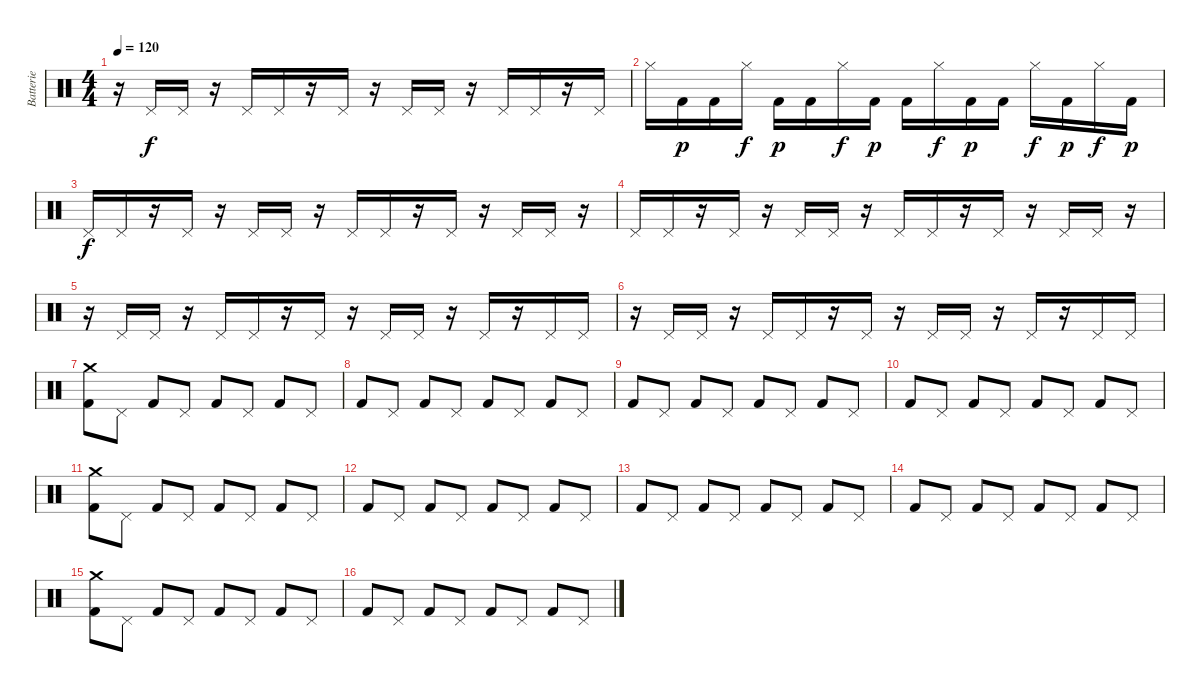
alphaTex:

\track ("Batterie" "Batterie") {instrument percussion}
\staff {score}
\articulation defaults
\ts (4 4)
\tempo 120
\clef neutral
\ks c
r.16{dy f} "Pedal Hi-Hat (hit)".16 "Pedal Hi-Hat (hit)".16 r.16 "Pedal Hi-Hat (hit)".16 "Pedal Hi-Hat (hit)".16 r.16 "Pedal Hi-Hat (hit)".16 r.16 "Pedal Hi-Hat (hit)".16 "Pedal Hi-Hat (hit)".16 r.16 "Pedal Hi-Hat (hit)".16 "Pedal Hi-Hat (hit)".16 r.16 "Pedal Hi-Hat (hit)".16 |
"Hi-Hat (closed)".16 "Kick (hit) 2".16{dy p} "Kick (hit) 2".16 "Hi-Hat (closed)".16{dy f} "Kick (hit) 2".16{dy p} "Kick (hit) 2".16 "Hi-Hat (closed)".16{dy f} "Kick (hit) 2".16{dy p} "Kick (hit) 2".16 "Hi-Hat (closed)".16{dy f} "Kick (hit) 2".16{dy p} "Kick (hit) 2".16 "Hi-Hat (closed)".16{dy f} "Kick (hit) 2".16{dy p} "Hi-Hat (closed)".16{dy f} "Kick (hit) 2".16{dy p} |
"Pedal Hi-Hat (hit)".16{dy f} "Pedal Hi-Hat (hit)".16 r.16 "Pedal Hi-Hat (hit)".16 r.16 "Pedal Hi-Hat (hit)".16 "Pedal Hi-Hat (hit)".16 r.16 "Pedal Hi-Hat (hit)".16 "Pedal Hi-Hat (hit)".16 r.16 "Pedal Hi-Hat (hit)".16 r.16 "Pedal Hi-Hat (hit)".16 "Pedal Hi-Hat (hit)".16 r.16 |
"Pedal Hi-Hat (hit)".16 "Pedal Hi-Hat (hit)".16 r.16 "Pedal Hi-Hat (hit)".16 r.16 "Pedal Hi-Hat (hit)".16 "Pedal Hi-Hat (hit)".16 r.16 "Pedal Hi-Hat (hit)".16 "Pedal Hi-Hat (hit)".16 r.16 "Pedal Hi-Hat (hit)".16 r.16 "Pedal Hi-Hat (hit)".16 "Pedal Hi-Hat (hit)".16 r.16 |
r.16 "Pedal Hi-Hat (hit)".16 "Pedal Hi-Hat (hit)".16 r.16 "Pedal Hi-Hat (hit)".16 "Pedal Hi-Hat (hit)".16 r.16 "Pedal Hi-Hat (hit)".16 r.16 "Pedal Hi-Hat (hit)".16 "Pedal Hi-Hat (hit)".16 r.16 "Pedal Hi-Hat (hit)".16 r.16 "Pedal Hi-Hat (hit)".16 "Pedal Hi-Hat (hit)".16 |
r.16 "Pedal Hi-Hat (hit)".16 "Pedal Hi-Hat (hit)".16 r.16 "Pedal Hi-Hat (hit)".16 "Pedal Hi-Hat (hit)".16 r.16 "Pedal Hi-Hat (hit)".16 r.16 "Pedal Hi-Hat (hit)".16 "Pedal Hi-Hat (hit)".16 r.16 "Pedal Hi-Hat (hit)".16 r.16 "Pedal Hi-Hat (hit)".16 "Pedal Hi-Hat (hit)".16 |
("Crash medium (hit)" "Kick (hit) 2").8 "Pedal Hi-Hat (hit)".8 "Kick (hit) 2".8 "Pedal Hi-Hat (hit)".8 "Kick (hit) 2".8 "Pedal Hi-Hat (hit)".8 "Kick (hit) 2".8 "Pedal Hi-Hat (hit)".8 |
"Kick (hit) 2".8 "Pedal Hi-Hat (hit)".8 "Kick (hit) 2".8 "Pedal Hi-Hat (hit)".8 "Kick (hit) 2".8 "Pedal Hi-Hat (hit)".8 "Kick (hit) 2".8 "Pedal Hi-Hat (hit)".8 |
"Kick (hit) 2".8 "Pedal Hi-Hat (hit)".8 "Kick (hit) 2".8 "Pedal Hi-Hat (hit)".8 "Kick (hit) 2".8 "Pedal Hi-Hat (hit)".8 "Kick (hit) 2".8 "Pedal Hi-Hat (hit)".8 |
"Kick (hit) 2".8 "Pedal Hi-Hat (hit)".8 "Kick (hit) 2".8 "Pedal Hi-Hat (hit)".8 "Kick (hit) 2".8 "Pedal Hi-Hat (hit)".8 "Kick (hit) 2".8 "Pedal Hi-Hat (hit)".8 |
("Crash medium (hit)" "Kick (hit) 2").8 "Pedal Hi-Hat (hit)".8 "Kick (hit) 2".8 "Pedal Hi-Hat (hit)".8 "Kick (hit) 2".8 "Pedal Hi-Hat (hit)".8 "Kick (hit) 2".8 "Pedal Hi-Hat (hit)".8 |
"Kick (hit) 2".8 "Pedal Hi-Hat (hit)".8 "Kick (hit) 2".8 "Pedal Hi-Hat (hit)".8 "Kick (hit) 2".8 "Pedal Hi-Hat (hit)".8 "Kick (hit) 2".8 "Pedal Hi-Hat (hit)".8 |
"Kick (hit) 2".8 "Pedal Hi-Hat (hit)".8 "Kick (hit) 2".8 "Pedal Hi-Hat (hit)".8 "Kick (hit) 2".8 "Pedal Hi-Hat (hit)".8 "Kick (hit) 2".8 "Pedal Hi-Hat (hit)".8 |
"Kick (hit) 2".8 "Pedal Hi-Hat (hit)".8 "Kick (hit) 2".8 "Pedal Hi-Hat (hit)".8 "Kick (hit) 2".8 "Pedal Hi-Hat (hit)".8 "Kick (hit) 2".8 "Pedal Hi-Hat (hit)".8 |
("Crash medium (hit)" "Kick (hit) 2").8 "Pedal Hi-Hat (hit)".8 "Kick (hit) 2".8 "Pedal Hi-Hat (hit)".8 "Kick (hit) 2".8 "Pedal Hi-Hat (hit)".8 "Kick (hit) 2".8 "Pedal Hi-Hat (hit)".8 |
"Kick (hit) 2".8 "Pedal Hi-Hat (hit)".8 "Kick (hit) 2".8 "Pedal Hi-Hat (hit)".8 "Kick (hit) 2".8 "Pedal Hi-Hat (hit)".8 "Kick (hit) 2".8 "Pedal Hi-Hat (hit)".8
